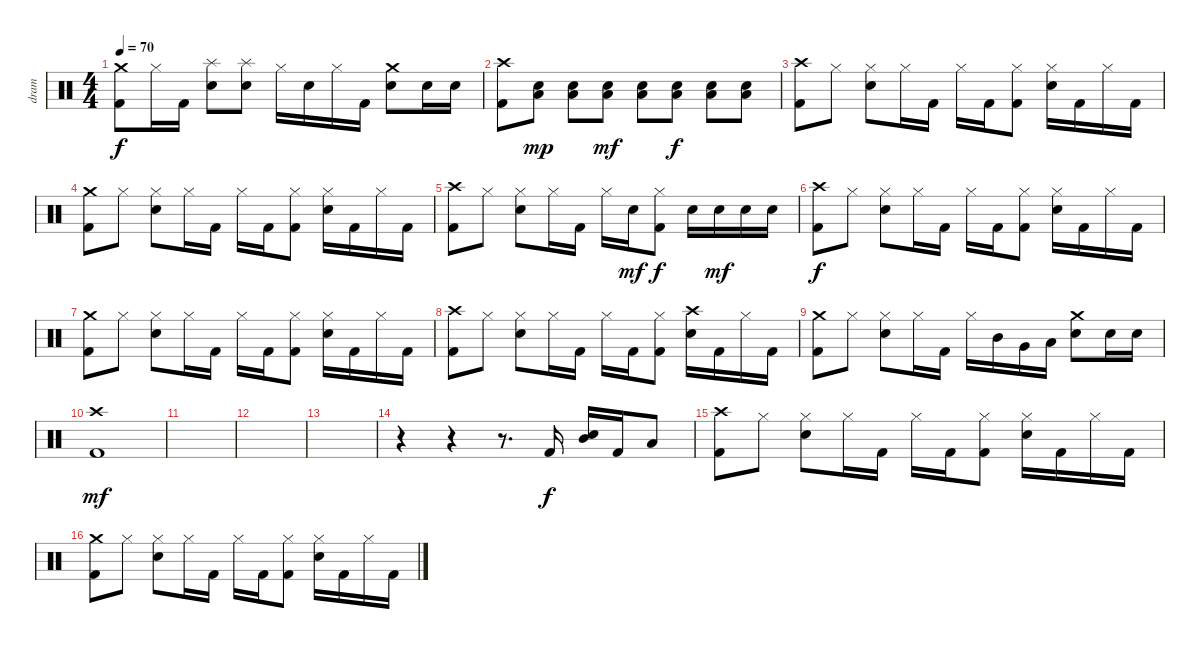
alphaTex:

\track ("dram" "dram") {instrument percussion}
\staff {score}
\articulation defaults
\ts (4 4)
\tempo 70
\clef neutral
\ks c
("Crash medium (hit)" "Kick (hit) 2").8{dy f} "Hi-Hat (closed)".16 "Kick (hit) 2".16 ("Splash (hit)" "Electric Snare (hit)").8 ("Splash (hit)" "Electric Snare (hit)").8 "Hi-Hat (closed)".16 "Electric Snare (hit)".16 "Hi-Hat (closed)".16 "Kick (hit) 2".16 ("Crash medium (hit)" "Electric Snare (hit)").8 "Electric Snare (hit)".16 "Electric Snare (hit)".16 |
("Crash high (hit)" "Kick (hit) 2").8 ("Electric Snare (hit)" "Low Floor Tom (hit)").8{dy mp} ("Electric Snare (hit)" "Low Floor Tom (hit)").8 ("Electric Snare (hit)" "Low Floor Tom (hit)").8{dy mf} ("Electric Snare (hit)" "Low Floor Tom (hit)").8 ("Electric Snare (hit)" "Low Floor Tom (hit)").8{dy f} ("Electric Snare (hit)" "Low Floor Tom (hit)").8 ("Electric Snare (hit)" "Low Floor Tom (hit)").8 |
("Crash high (hit)" "Kick (hit) 2").8 "Hi-Hat (closed)".8 ("Electric Snare (hit)" "Hi-Hat (closed)").8 "Hi-Hat (closed)".16 "Kick (hit) 2".16 "Hi-Hat (closed)".16 "Kick (hit) 2".16 ("Kick (hit) 2" "Hi-Hat (closed)").8 ("Electric Snare (hit)" "Hi-Hat (closed)").16 "Kick (hit) 2".16 "Hi-Hat (closed)".16 "Kick (hit) 2".16 |
("Crash medium (hit)" "Kick (hit) 2").8 "Hi-Hat (closed)".8 ("Electric Snare (hit)" "Hi-Hat (closed)").8 "Hi-Hat (closed)".16 "Kick (hit) 2".16 "Hi-Hat (closed)".16 "Kick (hit) 2".16 ("Kick (hit) 2" "Hi-Hat (closed)").8 ("Electric Snare (hit)" "Hi-Hat (closed)").16 "Kick (hit) 2".16 "Hi-Hat (closed)".16 "Kick (hit) 2".16 |
("Crash high (hit)" "Kick (hit) 2").8 "Hi-Hat (closed)".8 ("Electric Snare (hit)" "Hi-Hat (closed)").8 "Hi-Hat (closed)".16 "Kick (hit) 2".16 "Hi-Hat (closed)".16 "Electric Snare (hit)".16{dy mf} ("Kick (hit) 2" "Hi-Hat (closed)").8{dy f} "Electric Snare (hit)".16 "Electric Snare (hit)".16{dy mf} "Electric Snare (hit)".16 "Electric Snare (hit)".16 |
("Crash high (hit)" "Kick (hit) 2").8{dy f} "Hi-Hat (closed)".8 ("Electric Snare (hit)" "Hi-Hat (closed)").8 "Hi-Hat (closed)".16 "Kick (hit) 2".16 "Hi-Hat (closed)".16 "Kick (hit) 2".16 ("Kick (hit) 2" "Hi-Hat (closed)").8 ("Electric Snare (hit)" "Hi-Hat (closed)").16 "Kick (hit) 2".16 "Hi-Hat (closed)".16 "Kick (hit) 2".16 |
("Crash medium (hit)" "Kick (hit) 2").8 "Hi-Hat (closed)".8 ("Electric Snare (hit)" "Hi-Hat (closed)").8 "Hi-Hat (closed)".16 "Kick (hit) 2".16 "Hi-Hat (closed)".16 "Kick (hit) 2".16 ("Kick (hit) 2" "Hi-Hat (closed)").8 ("Electric Snare (hit)" "Hi-Hat (closed)").16 "Kick (hit) 2".16 "Hi-Hat (closed)".16 "Kick (hit) 2".16 |
("Crash high (hit)" "Kick (hit) 2").8 "Hi-Hat (closed)".8 ("Electric Snare (hit)" "Hi-Hat (closed)").8 "Hi-Hat (closed)".16 "Kick (hit) 2".16 "Hi-Hat (closed)".16 "Kick (hit) 2".16 ("Kick (hit) 2" "Hi-Hat (closed)").8 ("Crash high (hit)" "Electric Snare (hit)").16 "Kick (hit) 2".16 "Hi-Hat (closed)".16 "Kick (hit) 2".16 |
("Crash medium (hit)" "Kick (hit) 2").8 "Hi-Hat (closed)".8 ("Electric Snare (hit)" "Hi-Hat (closed)").8 "Hi-Hat (closed)".16 "Kick (hit) 2".16 "Hi-Hat (closed)".16 "Mid Tom (hit)".16 "Very Low Tom (hit)".16 "Low Floor Tom (hit)".16 ("Crash medium (hit)" "Electric Snare (hit)").8 "Electric Snare (hit)".16 "Electric Snare (hit)".16 |
("Crash high (hit)" "Kick (hit) 2").1{dy mf} |
|
|
|
r.4 r.4 r.8{d} "Kick (hit) 2".16{dy f} ("Electric Snare (hit)" "Mid Tom (hit)").16 "Kick (hit) 2".16 "Low Floor Tom (hit)".8 |
("Crash high (hit)" "Kick (hit) 2").8 "Hi-Hat (closed)".8 ("Electric Snare (hit)" "Hi-Hat (closed)").8 "Hi-Hat (closed)".16 "Kick (hit) 2".16 "Hi-Hat (closed)".16 "Kick (hit) 2".16 ("Kick (hit) 2" "Hi-Hat (closed)").8 ("Electric Snare (hit)" "Hi-Hat (closed)").16 "Kick (hit) 2".16 "Hi-Hat (closed)".16 "Kick (hit) 2".16 |
("Crash medium (hit)" "Kick (hit) 2").8 "Hi-Hat (closed)".8 ("Electric Snare (hit)" "Hi-Hat (closed)").8 "Hi-Hat (closed)".16 "Kick (hit) 2".16 "Hi-Hat (closed)".16 "Kick (hit) 2".16 ("Kick (hit) 2" "Hi-Hat (closed)").8 ("Electric Snare (hit)" "Hi-Hat (closed)").16 "Kick (hit) 2".16 "Hi-Hat (closed)".16 "Kick (hit) 2".16
